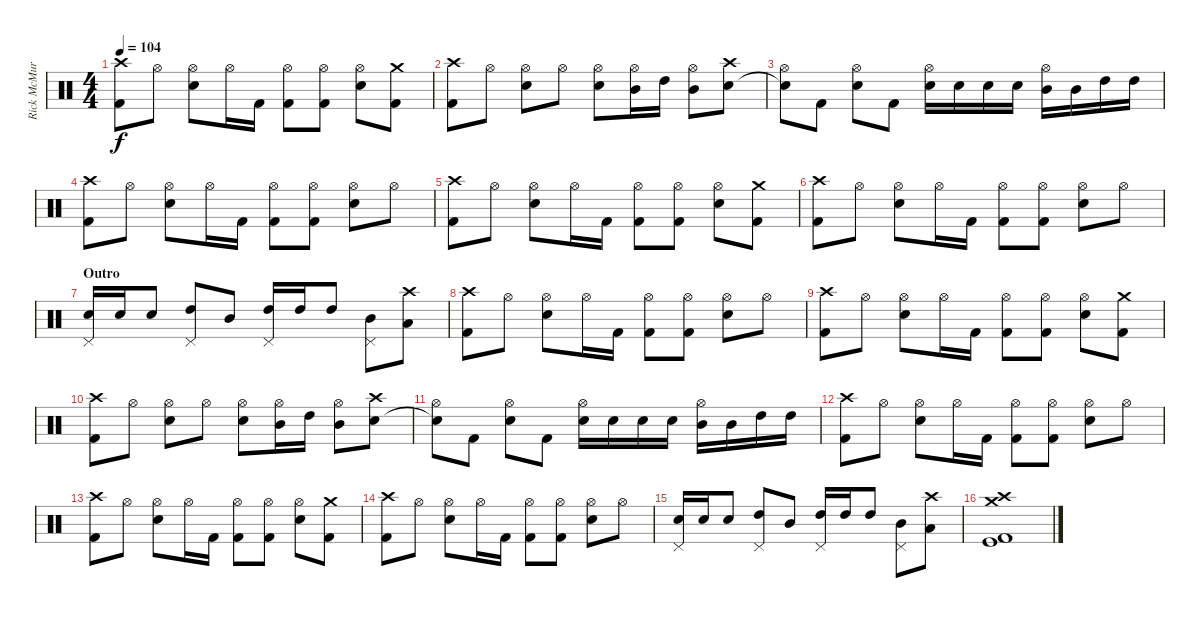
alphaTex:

\track ("Rick McMurray" "Rick McMur") {instrument percussion}
\staff {score}
\articulation defaults
\ts (4 4)
\tempo 104
\clef neutral
\ks c
("Crash high (hit)" "Kick (hit) 2").8{dy f} "Hi-Hat (open)".8 ("Hi-Hat (open)" "Snare (hit) 2").8 "Hi-Hat (open)".16 "Kick (hit) 2".16 ("Hi-Hat (open)" "Kick (hit) 2").8 ("Hi-Hat (open)" "Kick (hit) 2").8 ("Hi-Hat (open)" "Snare (hit) 2").8 ("Crash medium (hit)" "Kick (hit) 2").8 |
("Crash high (hit)" "Kick (hit) 2").8 "Hi-Hat (open)".8 ("Hi-Hat (open)" "Snare (hit) 2").8 "Hi-Hat (open)".8 ("Hi-Hat (open)" "Snare (hit) 2").8 ("Hi-Hat (open)" "Mid Tom (hit)").16 "High Tom (hit)".16 ("Hi-Hat (open)" "Mid Tom (hit)").8 ("Crash high (hit)" "Snare (hit) 2").8 |
("Hi-Hat (open)" "Snare (hit)"{t}).8 "Kick (hit) 2".8 ("Hi-Hat (open)" "Snare (hit) 2").8 "Kick (hit) 2".8 ("Snare (hit) 2" "Hi-Hat (open)").16 "Snare (hit) 2".16 "Snare (hit) 2".16 "Snare (hit) 2".16 ("Mid Tom (hit)" "Hi-Hat (open)").16 "Mid Tom (hit)".16 "High Tom (hit)".16 "High Tom (hit)".16 |
("Crash high (hit)" "Kick (hit) 2").8 "Hi-Hat (open)".8 ("Hi-Hat (open)" "Snare (hit) 2").8 "Hi-Hat (open)".16 "Kick (hit) 2".16 ("Hi-Hat (open)" "Kick (hit) 2").8 ("Hi-Hat (open)" "Kick (hit) 2").8 ("Hi-Hat (open)" "Snare (hit) 2").8 "Hi-Hat (open)".8 |
("Crash high (hit)" "Kick (hit) 2").8 "Hi-Hat (open)".8 ("Hi-Hat (open)" "Snare (hit) 2").8 "Hi-Hat (open)".16 "Kick (hit) 2".16 ("Hi-Hat (open)" "Kick (hit) 2").8 ("Hi-Hat (open)" "Kick (hit) 2").8 ("Hi-Hat (open)" "Snare (hit) 2").8 ("Crash medium (hit)" "Kick (hit) 2").8 |
("Crash high (hit)" "Kick (hit) 2").8 "Hi-Hat (open)".8 ("Hi-Hat (open)" "Snare (hit) 2").8 "Hi-Hat (open)".16 "Kick (hit) 2".16 ("Hi-Hat (open)" "Kick (hit) 2").8 ("Hi-Hat (open)" "Kick (hit) 2").8 ("Hi-Hat (open)" "Snare (hit) 2").8 "Hi-Hat (open)".8 |
\section ("" "Outro")
("Snare (hit) 2" "Pedal Hi-Hat (hit)").16 "Snare (hit) 2".16 "Snare (hit) 2".8 ("High Tom (hit)" "Pedal Hi-Hat (hit)").8 "Mid Tom (hit)".8 ("High Tom (hit)" "Pedal Hi-Hat (hit)").16 "High Tom (hit)".16 "High Tom (hit)".8 ("Mid Tom (hit)" "Pedal Hi-Hat (hit)").8 ("Crash high (hit)" "Low Tom (hit)").8 |
("Crash high (hit)" "Kick (hit) 2").8 "Hi-Hat (open)".8 ("Hi-Hat (open)" "Snare (hit) 2").8 "Hi-Hat (open)".16 "Kick (hit) 2".16 ("Hi-Hat (open)" "Kick (hit) 2").8 ("Hi-Hat (open)" "Kick (hit) 2").8 ("Hi-Hat (open)" "Snare (hit) 2").8 "Hi-Hat (open)".8 |
("Crash high (hit)" "Kick (hit) 2").8 "Hi-Hat (open)".8 ("Hi-Hat (open)" "Snare (hit) 2").8 "Hi-Hat (open)".16 "Kick (hit) 2".16 ("Hi-Hat (open)" "Kick (hit) 2").8 ("Hi-Hat (open)" "Kick (hit) 2").8 ("Hi-Hat (open)" "Snare (hit) 2").8 ("Crash medium (hit)" "Kick (hit) 2").8 |
("Crash high (hit)" "Kick (hit) 2").8 "Hi-Hat (open)".8 ("Hi-Hat (open)" "Snare (hit) 2").8 "Hi-Hat (open)".8 ("Hi-Hat (open)" "Snare (hit) 2").8 ("Hi-Hat (open)" "Mid Tom (hit)").16 "High Tom (hit)".16 ("Hi-Hat (open)" "Mid Tom (hit)").8 ("Crash high (hit)" "Snare (hit) 2").8 |
("Hi-Hat (open)" "Snare (hit)"{t}).8 "Kick (hit) 2".8 ("Hi-Hat (open)" "Snare (hit) 2").8 "Kick (hit) 2".8 ("Snare (hit) 2" "Hi-Hat (open)").16 "Snare (hit) 2".16 "Snare (hit) 2".16 "Snare (hit) 2".16 ("Mid Tom (hit)" "Hi-Hat (open)").16 "Mid Tom (hit)".16 "High Tom (hit)".16 "High Tom (hit)".16 |
("Crash high (hit)" "Kick (hit) 2").8 "Hi-Hat (open)".8 ("Hi-Hat (open)" "Snare (hit) 2").8 "Hi-Hat (open)".16 "Kick (hit) 2".16 ("Hi-Hat (open)" "Kick (hit) 2").8 ("Hi-Hat (open)" "Kick (hit) 2").8 ("Hi-Hat (open)" "Snare (hit) 2").8 "Hi-Hat (open)".8 |
("Crash high (hit)" "Kick (hit) 2").8 "Hi-Hat (open)".8 ("Hi-Hat (open)" "Snare (hit) 2").8 "Hi-Hat (open)".16 "Kick (hit) 2".16 ("Hi-Hat (open)" "Kick (hit) 2").8 ("Hi-Hat (open)" "Kick (hit) 2").8 ("Hi-Hat (open)" "Snare (hit) 2").8 ("Crash medium (hit)" "Kick (hit) 2").8 |
("Crash high (hit)" "Kick (hit) 2").8 "Hi-Hat (open)".8 ("Hi-Hat (open)" "Snare (hit) 2").8 "Hi-Hat (open)".16 "Kick (hit) 2".16 ("Hi-Hat (open)" "Kick (hit) 2").8 ("Hi-Hat (open)" "Kick (hit) 2").8 ("Hi-Hat (open)" "Snare (hit) 2").8 "Hi-Hat (open)".8 |
("Snare (hit) 2" "Pedal Hi-Hat (hit)").16 "Snare (hit) 2".16 "Snare (hit) 2".8 ("High Tom (hit)" "Pedal Hi-Hat (hit)").8 "Mid Tom (hit)".8 ("High Tom (hit)" "Pedal Hi-Hat (hit)").16 "High Tom (hit)".16 "High Tom (hit)".8 ("Mid Tom (hit)" "Pedal Hi-Hat (hit)").8 ("Crash high (hit)" "Low Tom (hit)").8 |
("Crash high (hit)" "Crash medium (hit)" "Kick (hit)" "Kick (hit) 2").1
